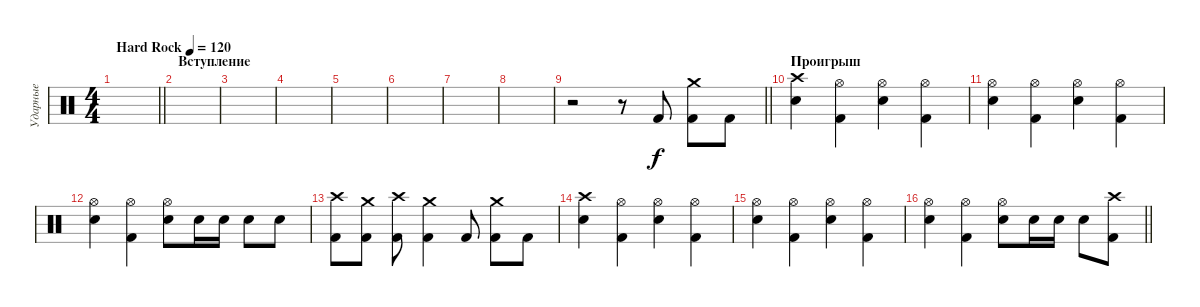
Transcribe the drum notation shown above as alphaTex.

\track ("Ударные" "Ударные") {instrument percussion}
\staff {score}
\articulation defaults
\ts (4 4)
\tempo (120 "Hard Rock")
\clef neutral
\barLineRight lightlight
\ks c
|
\section ("" "Вступление")
|
|
|
|
|
|
|
\barLineRight lightlight
r.2 r.8 "Kick (hit) 2".8 ("Kick (hit) 2" "Crash medium (hit)").8 "Kick (hit) 2".8 |
\section ("" "Проигрыш")
("Snare (hit) 2" "Crash high (hit)").4 ("Kick (hit) 2" "Hi-Hat (open)").4 ("Snare (hit) 2" "Hi-Hat (open)").4 ("Kick (hit) 2" "Hi-Hat (open)").4 |
("Snare (hit) 2" "Hi-Hat (open)").4 ("Kick (hit) 2" "Hi-Hat (open)").4 ("Snare (hit) 2" "Hi-Hat (open)").4 ("Kick (hit) 2" "Hi-Hat (open)").4 |
("Snare (hit) 2" "Hi-Hat (open)").4 ("Kick (hit) 2" "Hi-Hat (open)").4 ("Snare (hit) 2" "Hi-Hat (open)").8 "Snare (hit) 2".16 "Snare (hit) 2".16 "Snare (hit) 2".8 "Snare (hit) 2".8 |
("Kick (hit) 2" "Crash high (hit)").8 ("Kick (hit) 2" "Crash medium (hit)").8 ("Kick (hit) 2" "Crash high (hit)").8 ("Kick (hit) 2" "Crash medium (hit)").4 "Kick (hit) 2".8 ("Kick (hit) 2" "Crash medium (hit)").8 "Kick (hit) 2".8 |
("Snare (hit) 2" "Crash high (hit)").4 ("Kick (hit) 2" "Hi-Hat (open)").4 ("Snare (hit) 2" "Hi-Hat (open)").4 ("Kick (hit) 2" "Hi-Hat (open)").4 |
("Snare (hit) 2" "Hi-Hat (open)").4 ("Kick (hit) 2" "Hi-Hat (open)").4 ("Snare (hit) 2" "Hi-Hat (open)").4 ("Kick (hit) 2" "Hi-Hat (open)").4 |
\barLineRight lightlight
("Snare (hit) 2" "Hi-Hat (open)").4 ("Kick (hit) 2" "Hi-Hat (open)").4 ("Snare (hit) 2" "Hi-Hat (open)").8 "Snare (hit) 2".16 "Snare (hit) 2".16 "Snare (hit) 2".8 ("Kick (hit) 2" "Crash high (hit)").8
